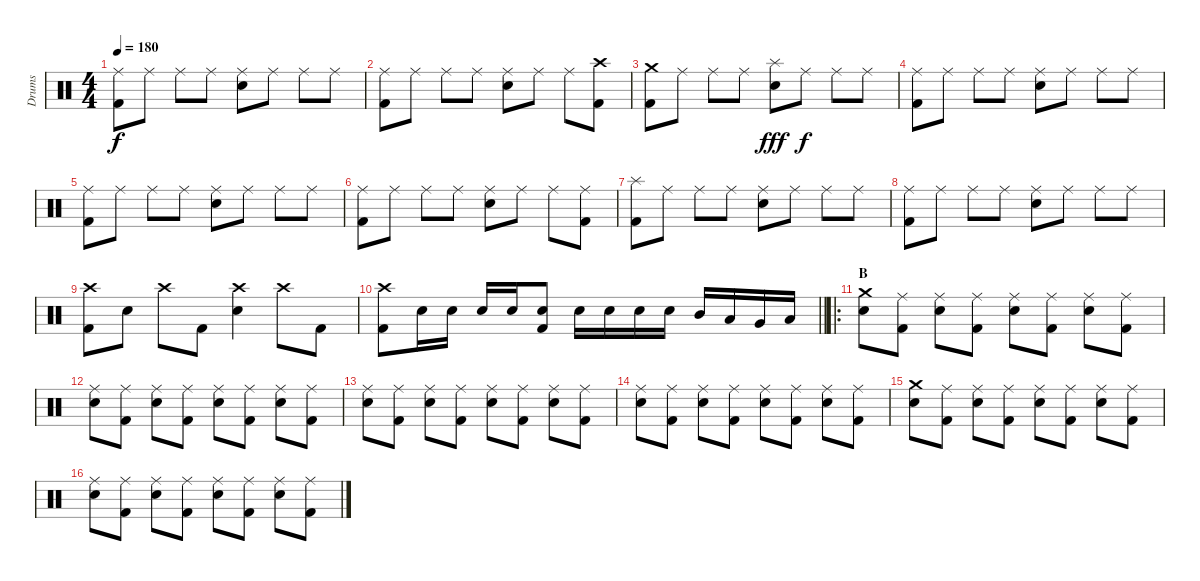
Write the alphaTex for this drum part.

\track ("Drums" "Drums") {instrument percussion}
\staff {score}
\articulation defaults
\ts (4 4)
\tempo 180
\clef neutral
\ks c
("Kick (hit) 2" "Ride (middle)").8{dy f} "Ride (middle)".8 "Ride (middle)".8 "Ride (middle)".8 ("Ride (middle)" "Snare (hit) 2").8 "Ride (middle)".8 "Ride (middle)".8 "Ride (middle)".8 |
("Kick (hit) 2" "Ride (middle)").8 "Ride (middle)".8 "Ride (middle)".8 "Ride (middle)".8 ("Ride (middle)" "Snare (hit) 2").8 "Ride (middle)".8 "Ride (middle)".8 ("Kick (hit) 2" "Crash high (hit)").8 |
("Kick (hit) 2" "Crash medium (hit)").8 "Ride (middle)".8 "Ride (middle)".8 "Ride (middle)".8 ("Splash (hit)" "Snare (hit) 2").8{dy fff} "Ride (middle)".8{dy f} "Ride (middle)".8 "Ride (middle)".8 |
("Kick (hit) 2" "Ride (middle)").8 "Ride (middle)".8 "Ride (middle)".8 "Ride (middle)".8 ("Ride (middle)" "Snare (hit) 2").8 "Ride (middle)".8 "Ride (middle)".8 "Ride (middle)".8 |
("Kick (hit) 2" "Ride (middle)").8 "Ride (middle)".8 "Ride (middle)".8 "Ride (middle)".8 ("Ride (middle)" "Snare (hit) 2").8 "Ride (middle)".8 "Ride (middle)".8 "Ride (middle)".8 |
("Kick (hit) 2" "Ride (middle)").8 "Ride (middle)".8 "Ride (middle)".8 "Ride (middle)".8 ("Ride (middle)" "Snare (hit) 2").8 "Ride (middle)".8 "Ride (middle)".8 ("Kick (hit) 2" "Ride (middle)").8 |
("Kick (hit) 2" "Splash (hit)").8 "Ride (middle)".8 "Ride (middle)".8 "Ride (middle)".8 ("Ride (middle)" "Snare (hit) 2").8 "Ride (middle)".8 "Ride (middle)".8 "Ride (middle)".8 |
("Kick (hit) 2" "Ride (middle)").8 "Ride (middle)".8 "Ride (middle)".8 "Ride (middle)".8 ("Ride (middle)" "Snare (hit) 2").8 "Ride (middle)".8 "Ride (middle)".8 "Ride (middle)".8 |
("Kick (hit) 2" "Crash high (hit)").8 "Snare (hit) 2".8 "Crash high (hit)".8 "Kick (hit) 2".8 ("Crash high (hit)" "Snare (hit) 2").4 "Crash high (hit)".8 "Kick (hit) 2".8 |
\barLineRight lightlight
("Kick (hit) 2" "Crash high (hit)").8 "Snare (hit) 2".16 "Snare (hit) 2".16 "Snare (hit) 2".16 "Snare (hit) 2".16 ("Kick (hit) 2" "Snare (hit) 2").8 "Snare (hit) 2".16 "Snare (hit) 2".16 "Snare (hit) 2".16 "Snare (hit) 2".16 "Mid Tom (hit)".16 "Low Tom (hit)".16 "Very Low Tom (hit)".16 "Low Floor Tom (hit)".16 |
\ro
\section ("" "B")
("Crash medium (hit)" "Snare (hit) 2").8 ("Kick (hit) 2" "Ride (middle)").8 ("Ride (middle)" "Snare (hit) 2").8 ("Kick (hit) 2" "Ride (middle)").8 ("Ride (middle)" "Snare (hit) 2").8 ("Kick (hit) 2" "Ride (middle)").8 ("Ride (middle)" "Snare (hit) 2").8 ("Kick (hit) 2" "Ride (middle)").8 |
("Ride (middle)" "Snare (hit) 2").8 ("Kick (hit) 2" "Ride (middle)").8 ("Ride (middle)" "Snare (hit) 2").8 ("Kick (hit) 2" "Ride (middle)").8 ("Ride (middle)" "Snare (hit) 2").8 ("Kick (hit) 2" "Ride (middle)").8 ("Ride (middle)" "Snare (hit) 2").8 ("Kick (hit) 2" "Ride (middle)").8 |
("Ride (middle)" "Snare (hit) 2").8 ("Kick (hit) 2" "Ride (middle)").8 ("Ride (middle)" "Snare (hit) 2").8 ("Kick (hit) 2" "Ride (middle)").8 ("Ride (middle)" "Snare (hit) 2").8 ("Kick (hit) 2" "Ride (middle)").8 ("Ride (middle)" "Snare (hit) 2").8 ("Kick (hit) 2" "Ride (middle)").8 |
("Ride (middle)" "Snare (hit) 2").8 ("Kick (hit) 2" "Ride (middle)").8 ("Ride (middle)" "Snare (hit) 2").8 ("Kick (hit) 2" "Ride (middle)").8 ("Ride (middle)" "Snare (hit) 2").8 ("Kick (hit) 2" "Ride (middle)").8 ("Ride (middle)" "Snare (hit) 2").8 ("Kick (hit) 2" "Ride (middle)").8 |
("Crash medium (hit)" "Snare (hit) 2").8 ("Kick (hit) 2" "Ride (middle)").8 ("Ride (middle)" "Snare (hit) 2").8 ("Kick (hit) 2" "Ride (middle)").8 ("Ride (middle)" "Snare (hit) 2").8 ("Kick (hit) 2" "Ride (middle)").8 ("Ride (middle)" "Snare (hit) 2").8 ("Kick (hit) 2" "Ride (middle)").8 |
("Ride (middle)" "Snare (hit) 2").8 ("Kick (hit) 2" "Ride (middle)").8 ("Ride (middle)" "Snare (hit) 2").8 ("Kick (hit) 2" "Ride (middle)").8 ("Ride (middle)" "Snare (hit) 2").8 ("Kick (hit) 2" "Ride (middle)").8 ("Ride (middle)" "Snare (hit) 2").8 ("Kick (hit) 2" "Ride (middle)").8
